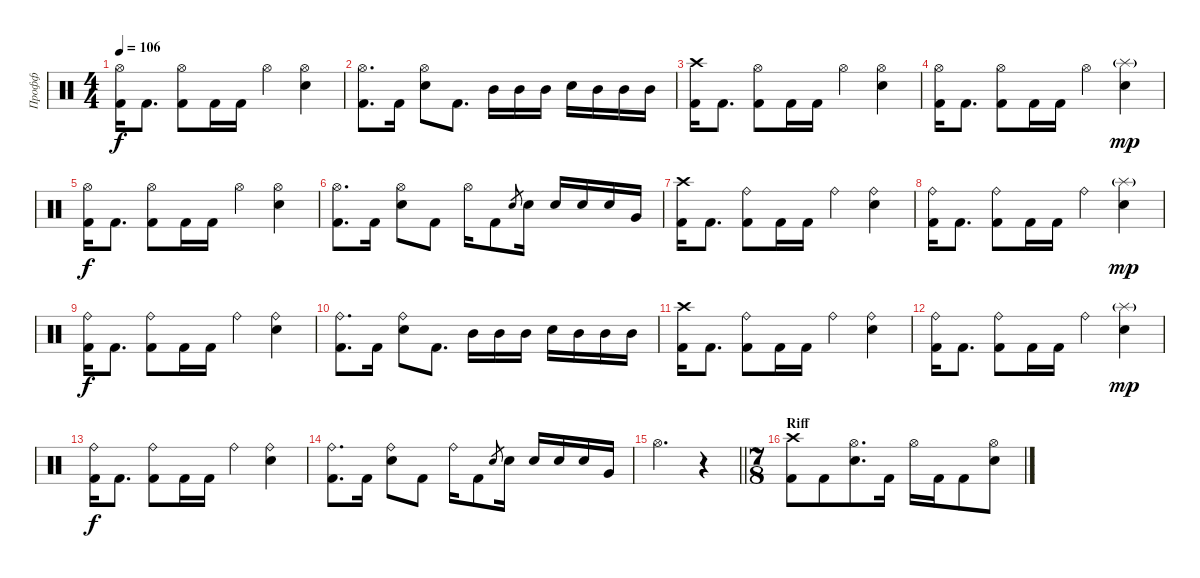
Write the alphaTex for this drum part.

\track ("Профф" "Профф") {instrument percussion}
\staff {score}
\articulation defaults
\ts (4 4)
\tempo 106
\clef neutral
\ks c
("Hi-Hat (open)" "Kick (hit) 2").16{dy f} "Kick (hit) 2".8{d} ("Hi-Hat (open)" "Kick (hit) 2").8 "Kick (hit) 2".16 "Kick (hit) 2".16 "Hi-Hat (open)".4 ("Hi-Hat (open)" "Snare (hit) 2").4 |
("Hi-Hat (open)" "Kick (hit) 2").8{d} "Kick (hit) 2".16 ("Hi-Hat (open)" "Snare (hit) 2").8 "Kick (hit) 2".8{d} "Mid Tom (hit)".16 "Mid Tom (hit)".16 "Mid Tom (hit)".16 "Snare (hit) 2".16 "Mid Tom (hit)".16 "Mid Tom (hit)".16 "Mid Tom (hit)".16 |
("Crash high (hit)" "Kick (hit) 2").16 "Kick (hit) 2".8{d} ("Hi-Hat (open)" "Kick (hit) 2").8 "Kick (hit) 2".16 "Kick (hit) 2".16 "Hi-Hat (open)".4 ("Hi-Hat (open)" "Snare (hit) 2").4 |
("Hi-Hat (open)" "Kick (hit) 2").16 "Kick (hit) 2".8{d} ("Hi-Hat (open)" "Kick (hit) 2").8 "Kick (hit) 2".16 "Kick (hit) 2".16 "Hi-Hat (open)".4 ("Splash (hit)"{g} "Snare (hit) 2").4{dy mp} |
("Hi-Hat (open)" "Kick (hit) 2").16{dy f} "Kick (hit) 2".8{d} ("Hi-Hat (open)" "Kick (hit) 2").8 "Kick (hit) 2".16 "Kick (hit) 2".16 "Hi-Hat (open)".4 ("Hi-Hat (open)" "Snare (hit) 2").4 |
("Hi-Hat (open)" "Kick (hit) 2").8{d} "Kick (hit) 2".16 ("Hi-Hat (open)" "Snare (hit) 2").8 "Kick (hit) 2".8 "Hi-Hat (open)".16 "Kick (hit) 2".8 "Snare (hit) 2".8{gr} "Snare (hit) 2".16 "Snare (hit) 2".16 "Snare (hit) 2".16 "Snare (hit) 2".16 "Very Low Tom (hit)".16 |
("Crash high (hit)" "Kick (hit) 2").16 "Kick (hit) 2".8{d} ("Ride (bell)" "Kick (hit) 2").8 "Kick (hit) 2".16 "Kick (hit) 2".16 "Ride (bell)".4 ("Ride (bell)" "Snare (hit) 2").4 |
("Ride (bell)" "Kick (hit) 2").16 "Kick (hit) 2".8{d} ("Ride (bell)" "Kick (hit) 2").8 "Kick (hit) 2".16 "Kick (hit) 2".16 "Ride (bell)".4 ("Splash (hit)"{g} "Snare (hit) 2").4{dy mp} |
("Ride (bell)" "Kick (hit) 2").16{dy f} "Kick (hit) 2".8{d} ("Ride (bell)" "Kick (hit) 2").8 "Kick (hit) 2".16 "Kick (hit) 2".16 "Ride (bell)".4 ("Ride (bell)" "Snare (hit) 2").4 |
("Ride (bell)" "Kick (hit) 2").8{d} "Kick (hit) 2".16 ("Ride (bell)" "Snare (hit) 2").8 "Kick (hit) 2".8{d} "Mid Tom (hit)".16 "Mid Tom (hit)".16 "Mid Tom (hit)".16 "Snare (hit) 2".16 "Mid Tom (hit)".16 "Mid Tom (hit)".16 "Mid Tom (hit)".16 |
("Crash high (hit)" "Kick (hit) 2").16 "Kick (hit) 2".8{d} ("Ride (bell)" "Kick (hit) 2").8 "Kick (hit) 2".16 "Kick (hit) 2".16 "Ride (bell)".4 ("Ride (bell)" "Snare (hit) 2").4 |
("Ride (bell)" "Kick (hit) 2").16 "Kick (hit) 2".8{d} ("Ride (bell)" "Kick (hit) 2").8 "Kick (hit) 2".16 "Kick (hit) 2".16 "Ride (bell)".4 ("Splash (hit)"{g} "Snare (hit) 2").4{dy mp} |
("Ride (bell)" "Kick (hit) 2").16{dy f} "Kick (hit) 2".8{d} ("Ride (bell)" "Kick (hit) 2").8 "Kick (hit) 2".16 "Kick (hit) 2".16 "Ride (bell)".4 ("Ride (bell)" "Snare (hit) 2").4 |
("Ride (bell)" "Kick (hit) 2").8{d} "Kick (hit) 2".16 ("Ride (bell)" "Snare (hit) 2").8 "Kick (hit) 2".8 "Ride (bell)".16 "Kick (hit) 2".8 "Snare (hit) 2".8{gr} "Snare (hit) 2".16 "Snare (hit) 2".16 "Snare (hit) 2".16 "Snare (hit) 2".16 "Very Low Tom (hit)".16 |
\barLineRight lightlight "Hi-Hat (open)".2{d volume 0}
r.4{volume 16} |
\ts (7 8)
\section ("" "Riff")
("Crash high (hit)" "Kick (hit) 2").8 "Kick (hit) 2".8 ("Hi-Hat (open)" "Snare (hit) 2").8{d} "Kick (hit) 2".16 "Hi-Hat (open)".16 "Kick (hit) 2".16 "Kick (hit) 2".8 ("Hi-Hat (open)" "Snare (hit) 2").8
